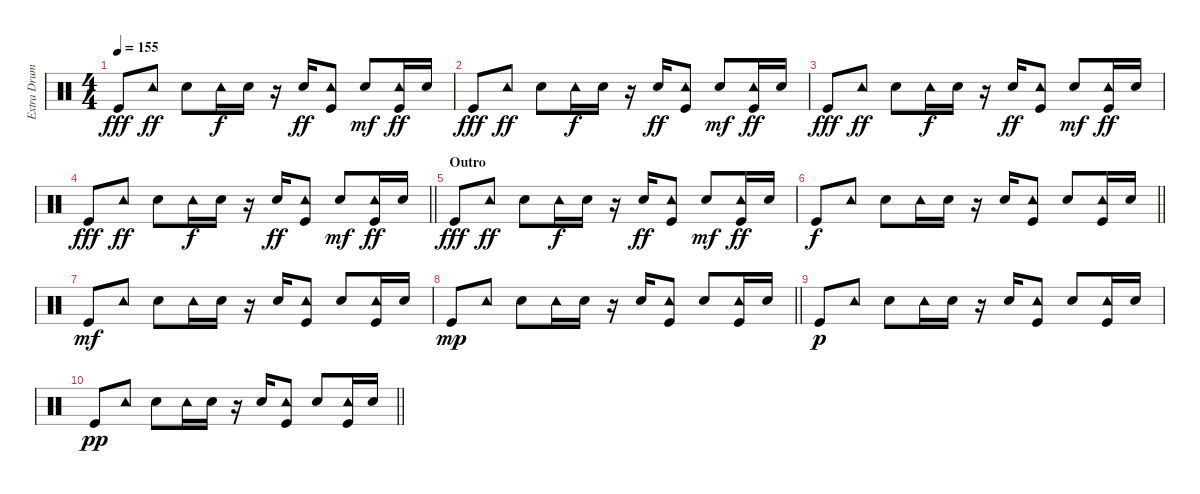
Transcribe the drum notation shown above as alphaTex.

\track ("Extra Drums" "Extra Drum") {instrument percussion}
\staff {score}
\articulation defaults
\ts (4 4)
\tempo 155
\clef neutral
\ks c "Kick (hit)".8{dy fff} "Tambourine (hit)".8{dy ff} "Electric Snare (hit)".8 "Tambourine (hit)".16{dy f} "Electric Snare (hit)".16
r.16 "Electric Snare (hit)".16{dy ff} ("Kick (hit)" "Tambourine (hit)").8 "Electric Snare (hit)".8{dy mf} ("Kick (hit)" "Tambourine (hit)").16{dy ff} "Electric Snare (hit)".16 |
"Kick (hit)".8{dy fff} "Tambourine (hit)".8{dy ff} "Electric Snare (hit)".8 "Tambourine (hit)".16{dy f} "Electric Snare (hit)".16 r.16 "Electric Snare (hit)".16{dy ff} ("Kick (hit)" "Tambourine (hit)").8 "Electric Snare (hit)".8{dy mf} ("Kick (hit)" "Tambourine (hit)").16{dy ff} "Electric Snare (hit)".16 |
"Kick (hit)".8{dy fff} "Tambourine (hit)".8{dy ff} "Electric Snare (hit)".8 "Tambourine (hit)".16{dy f} "Electric Snare (hit)".16 r.16 "Electric Snare (hit)".16{dy ff} ("Kick (hit)" "Tambourine (hit)").8 "Electric Snare (hit)".8{dy mf} ("Kick (hit)" "Tambourine (hit)").16{dy ff} "Electric Snare (hit)".16 |
\barLineRight lightlight "Kick (hit)".8{dy fff} "Tambourine (hit)".8{dy ff} "Electric Snare (hit)".8 "Tambourine (hit)".16{dy f} "Electric Snare (hit)".16
r.16 "Electric Snare (hit)".16{dy ff} ("Kick (hit)" "Tambourine (hit)").8 "Electric Snare (hit)".8{dy mf} ("Kick (hit)" "Tambourine (hit)").16{dy ff} "Electric Snare (hit)".16 |
\section ("" "Outro")
"Kick (hit)".8{dy fff} "Tambourine (hit)".8{dy ff} "Electric Snare (hit)".8 "Tambourine (hit)".16{dy f} "Electric Snare (hit)".16 r.16 "Electric Snare (hit)".16{dy ff} ("Kick (hit)" "Tambourine (hit)").8 "Electric Snare (hit)".8{dy mf} ("Kick (hit)" "Tambourine (hit)").16{dy ff} "Electric Snare (hit)".16 |
\barLineRight lightlight "Kick (hit)".8{dy f} "Tambourine (hit)".8 "Electric Snare (hit)".8 "Tambourine (hit)".16 "Electric Snare (hit)".16
r.16 "Electric Snare (hit)".16 ("Kick (hit)" "Tambourine (hit)").8 "Electric Snare (hit)".8 ("Kick (hit)" "Tambourine (hit)").16 "Electric Snare (hit)".16 |
"Kick (hit)".8{dy mf} "Tambourine (hit)".8 "Electric Snare (hit)".8 "Tambourine (hit)".16 "Electric Snare (hit)".16 r.16 "Electric Snare (hit)".16 ("Kick (hit)" "Tambourine (hit)").8 "Electric Snare (hit)".8 ("Kick (hit)" "Tambourine (hit)").16 "Electric Snare (hit)".16 |
\barLineRight lightlight "Kick (hit)".8{dy mp} "Tambourine (hit)".8 "Electric Snare (hit)".8 "Tambourine (hit)".16 "Electric Snare (hit)".16
r.16 "Electric Snare (hit)".16 ("Kick (hit)" "Tambourine (hit)").8 "Electric Snare (hit)".8 ("Kick (hit)" "Tambourine (hit)").16 "Electric Snare (hit)".16 |
"Kick (hit)".8{dy p} "Tambourine (hit)".8 "Electric Snare (hit)".8 "Tambourine (hit)".16 "Electric Snare (hit)".16 r.16 "Electric Snare (hit)".16 ("Kick (hit)" "Tambourine (hit)").8 "Electric Snare (hit)".8 ("Kick (hit)" "Tambourine (hit)").16 "Electric Snare (hit)".16 |
\barLineRight lightlight "Kick (hit)".8{dy pp} "Tambourine (hit)".8 "Electric Snare (hit)".8 "Tambourine (hit)".16 "Electric Snare (hit)".16
r.16 "Electric Snare (hit)".16 ("Kick (hit)" "Tambourine (hit)").8 "Electric Snare (hit)".8 ("Kick (hit)" "Tambourine (hit)").16 "Electric Snare (hit)".16
